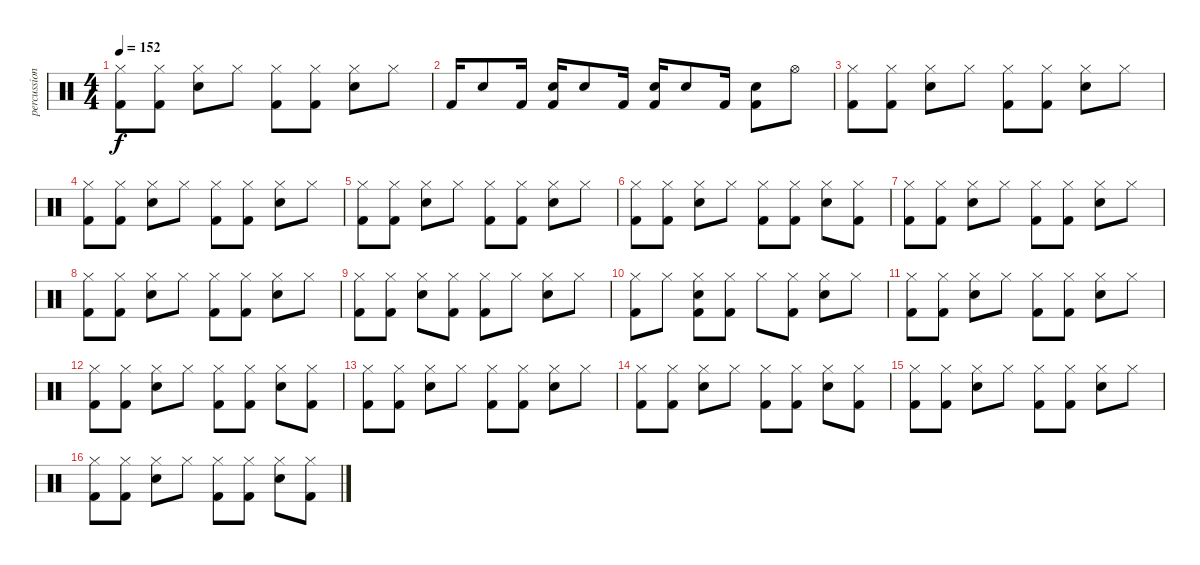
\track ("percussion" "percussion") {instrument percussion}
\staff {score}
\articulation defaults
\ts (4 4)
\tempo 152
\clef neutral
\ks c
("Hi-Hat (closed)" "Kick (hit) 2").8{dy f} ("Hi-Hat (closed)" "Kick (hit) 2").8 ("Electric Snare (hit)" "Hi-Hat (closed)").8 "Hi-Hat (closed)".8 ("Hi-Hat (closed)" "Kick (hit) 2").8 ("Hi-Hat (closed)" "Kick (hit) 2").8 ("Electric Snare (hit)" "Hi-Hat (closed)").8 "Hi-Hat (closed)".8 |
"Kick (hit) 2".16 "Electric Snare (hit)".8 "Kick (hit) 2".16 ("Electric Snare (hit)" "Kick (hit) 2").16 "Electric Snare (hit)".8 "Kick (hit) 2".16 ("Electric Snare (hit)" "Kick (hit) 2").16 "Electric Snare (hit)".8 "Kick (hit) 2".16 ("Electric Snare (hit)" "Kick (hit) 2").8 "Hi-Hat (open)".8 |
("Hi-Hat (closed)" "Kick (hit) 2").8 ("Hi-Hat (closed)" "Kick (hit) 2").8 ("Electric Snare (hit)" "Hi-Hat (closed)").8 "Hi-Hat (closed)".8 ("Hi-Hat (closed)" "Kick (hit) 2").8 ("Hi-Hat (closed)" "Kick (hit) 2").8 ("Electric Snare (hit)" "Hi-Hat (closed)").8 "Hi-Hat (closed)".8 |
("Hi-Hat (closed)" "Kick (hit) 2").8 ("Hi-Hat (closed)" "Kick (hit) 2").8 ("Electric Snare (hit)" "Hi-Hat (closed)").8 "Hi-Hat (closed)".8 ("Hi-Hat (closed)" "Kick (hit) 2").8 ("Hi-Hat (closed)" "Kick (hit) 2").8 ("Electric Snare (hit)" "Hi-Hat (closed)").8 "Hi-Hat (closed)".8 |
("Hi-Hat (closed)" "Kick (hit) 2").8 ("Hi-Hat (closed)" "Kick (hit) 2").8 ("Electric Snare (hit)" "Hi-Hat (closed)").8 "Hi-Hat (closed)".8 ("Hi-Hat (closed)" "Kick (hit) 2").8 ("Hi-Hat (closed)" "Kick (hit) 2").8 ("Electric Snare (hit)" "Hi-Hat (closed)").8 "Hi-Hat (closed)".8 |
("Hi-Hat (closed)" "Kick (hit) 2").8 ("Hi-Hat (closed)" "Kick (hit) 2").8 ("Electric Snare (hit)" "Hi-Hat (closed)").8 "Hi-Hat (closed)".8 ("Hi-Hat (closed)" "Kick (hit) 2").8 ("Hi-Hat (closed)" "Kick (hit) 2").8 ("Electric Snare (hit)" "Hi-Hat (closed)").8 ("Hi-Hat (closed)" "Kick (hit) 2").8 |
("Hi-Hat (closed)" "Kick (hit) 2").8 ("Hi-Hat (closed)" "Kick (hit) 2").8 ("Electric Snare (hit)" "Hi-Hat (closed)").8 "Hi-Hat (closed)".8 ("Hi-Hat (closed)" "Kick (hit) 2").8 ("Hi-Hat (closed)" "Kick (hit) 2").8 ("Electric Snare (hit)" "Hi-Hat (closed)").8 "Hi-Hat (closed)".8 |
("Hi-Hat (closed)" "Kick (hit) 2").8 ("Hi-Hat (closed)" "Kick (hit) 2").8 ("Electric Snare (hit)" "Hi-Hat (closed)").8 "Hi-Hat (closed)".8 ("Hi-Hat (closed)" "Kick (hit) 2").8 ("Hi-Hat (closed)" "Kick (hit) 2").8 ("Electric Snare (hit)" "Hi-Hat (closed)").8 "Hi-Hat (closed)".8 |
("Hi-Hat (closed)" "Kick (hit) 2").8 ("Hi-Hat (closed)" "Kick (hit) 2").8 ("Electric Snare (hit)" "Hi-Hat (closed)").8 ("Hi-Hat (closed)" "Kick (hit) 2").8 ("Hi-Hat (closed)" "Kick (hit) 2").8 "Hi-Hat (closed)".8 ("Electric Snare (hit)" "Hi-Hat (closed)").8 "Hi-Hat (closed)".8 |
("Hi-Hat (closed)" "Kick (hit) 2").8 "Hi-Hat (closed)".8 ("Electric Snare (hit)" "Hi-Hat (closed)" "Kick (hit) 2").8 ("Hi-Hat (closed)" "Kick (hit) 2").8 "Hi-Hat (closed)".8 ("Hi-Hat (closed)" "Kick (hit) 2").8 ("Electric Snare (hit)" "Hi-Hat (closed)").8 "Hi-Hat (closed)".8 |
("Hi-Hat (closed)" "Kick (hit) 2").8 ("Hi-Hat (closed)" "Kick (hit) 2").8 ("Electric Snare (hit)" "Hi-Hat (closed)").8 "Hi-Hat (closed)".8 ("Hi-Hat (closed)" "Kick (hit) 2").8 ("Hi-Hat (closed)" "Kick (hit) 2").8 ("Electric Snare (hit)" "Hi-Hat (closed)").8 "Hi-Hat (closed)".8 |
("Hi-Hat (closed)" "Kick (hit) 2").8 ("Hi-Hat (closed)" "Kick (hit) 2").8 ("Electric Snare (hit)" "Hi-Hat (closed)").8 "Hi-Hat (closed)".8 ("Hi-Hat (closed)" "Kick (hit) 2").8 ("Hi-Hat (closed)" "Kick (hit) 2").8 ("Electric Snare (hit)" "Hi-Hat (closed)").8 ("Hi-Hat (closed)" "Kick (hit) 2").8 |
("Hi-Hat (closed)" "Kick (hit) 2").8 ("Hi-Hat (closed)" "Kick (hit) 2").8 ("Electric Snare (hit)" "Hi-Hat (closed)").8 "Hi-Hat (closed)".8 ("Hi-Hat (closed)" "Kick (hit) 2").8 ("Hi-Hat (closed)" "Kick (hit) 2").8 ("Electric Snare (hit)" "Hi-Hat (closed)").8 "Hi-Hat (closed)".8 |
("Hi-Hat (closed)" "Kick (hit) 2").8 ("Hi-Hat (closed)" "Kick (hit) 2").8 ("Electric Snare (hit)" "Hi-Hat (closed)").8 "Hi-Hat (closed)".8 ("Hi-Hat (closed)" "Kick (hit) 2").8 ("Hi-Hat (closed)" "Kick (hit) 2").8 ("Electric Snare (hit)" "Hi-Hat (closed)").8 ("Hi-Hat (closed)" "Kick (hit) 2").8 |
("Hi-Hat (closed)" "Kick (hit) 2").8 ("Hi-Hat (closed)" "Kick (hit) 2").8 ("Electric Snare (hit)" "Hi-Hat (closed)").8 "Hi-Hat (closed)".8 ("Hi-Hat (closed)" "Kick (hit) 2").8 ("Hi-Hat (closed)" "Kick (hit) 2").8 ("Electric Snare (hit)" "Hi-Hat (closed)").8 "Hi-Hat (closed)".8 |
("Hi-Hat (closed)" "Kick (hit) 2").8 ("Hi-Hat (closed)" "Kick (hit) 2").8 ("Electric Snare (hit)" "Hi-Hat (closed)").8 "Hi-Hat (closed)".8 ("Hi-Hat (closed)" "Kick (hit) 2").8 ("Hi-Hat (closed)" "Kick (hit) 2").8 ("Electric Snare (hit)" "Hi-Hat (closed)").8 ("Hi-Hat (closed)" "Kick (hit) 2").8
